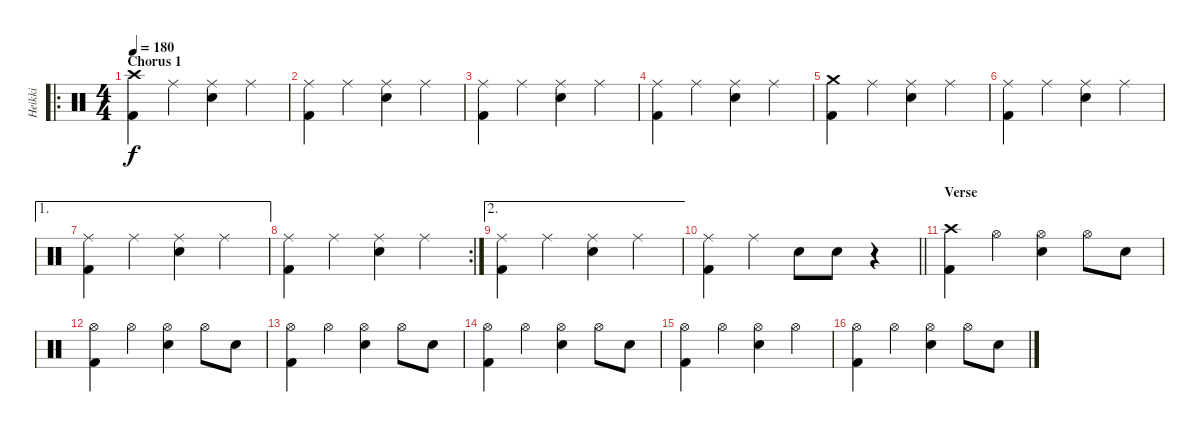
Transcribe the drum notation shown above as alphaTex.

\track ("Heikki" "Heikki") {instrument percussion}
\staff {score}
\articulation defaults
\ro
\ts (4 4)
\section ("" "Chorus 1")
\tempo 180
\clef neutral
\ks c
("Crash high (hit)" "Kick (hit) 2").4{dy f} "Ride (middle)".4 ("Ride (middle)" "Electric Snare (hit)").4 "Ride (middle)".4 |
("Ride (middle)" "Kick (hit) 2").4 "Ride (middle)".4 ("Ride (middle)" "Electric Snare (hit)").4 "Ride (middle)".4 |
("Ride (middle)" "Kick (hit) 2").4 "Ride (middle)".4 ("Ride (middle)" "Electric Snare (hit)").4 "Ride (middle)".4 |
("Ride (middle)" "Kick (hit) 2").4 "Ride (middle)".4 ("Ride (middle)" "Electric Snare (hit)").4 "Ride (middle)".4 |
("Crash medium (hit)" "Kick (hit) 2").4 "Ride (middle)".4 ("Ride (middle)" "Electric Snare (hit)").4 "Ride (middle)".4 |
("Ride (middle)" "Kick (hit) 2").4 "Ride (middle)".4 ("Ride (middle)" "Electric Snare (hit)").4 "Ride (middle)".4 |
\ae 1
("Ride (middle)" "Kick (hit) 2").4 "Ride (middle)".4 ("Ride (middle)" "Electric Snare (hit)").4 "Ride (middle)".4 |
\rc 2
("Ride (middle)" "Kick (hit) 2").4 "Ride (middle)".4 ("Ride (middle)" "Electric Snare (hit)").4 "Ride (middle)".4 |
\ae 2
("Ride (middle)" "Kick (hit) 2").4 "Ride (middle)".4 ("Ride (middle)" "Electric Snare (hit)").4 "Ride (middle)".4 |
\barLineRight lightlight
("Ride (middle)" "Kick (hit) 2").4 "Ride (middle)".4 "Electric Snare (hit)".8 "Electric Snare (hit)".8 r.4 |
\section ("" "Verse")
("Crash high (hit)" "Kick (hit) 2").4 "Hi-Hat (open)".4 ("Hi-Hat (open)" "Electric Snare (hit)").4 "Hi-Hat (open)".8 "Electric Snare (hit)".8 |
("Hi-Hat (open)" "Kick (hit) 2").4 "Hi-Hat (open)".4 ("Hi-Hat (open)" "Electric Snare (hit)").4 "Hi-Hat (open)".8 "Electric Snare (hit)".8 |
("Hi-Hat (open)" "Kick (hit) 2").4 "Hi-Hat (open)".4 ("Hi-Hat (open)" "Electric Snare (hit)").4 "Hi-Hat (open)".8 "Electric Snare (hit)".8 |
("Hi-Hat (open)" "Kick (hit) 2").4 "Hi-Hat (open)".4 ("Hi-Hat (open)" "Electric Snare (hit)").4 "Hi-Hat (open)".8 "Electric Snare (hit)".8 |
("Hi-Hat (open)" "Kick (hit) 2").4 "Hi-Hat (open)".4 ("Hi-Hat (open)" "Electric Snare (hit)").4 "Hi-Hat (open)".4 |
("Hi-Hat (open)" "Kick (hit) 2").4 "Hi-Hat (open)".4 ("Hi-Hat (open)" "Electric Snare (hit)").4 "Hi-Hat (open)".8 "Electric Snare (hit)".8
